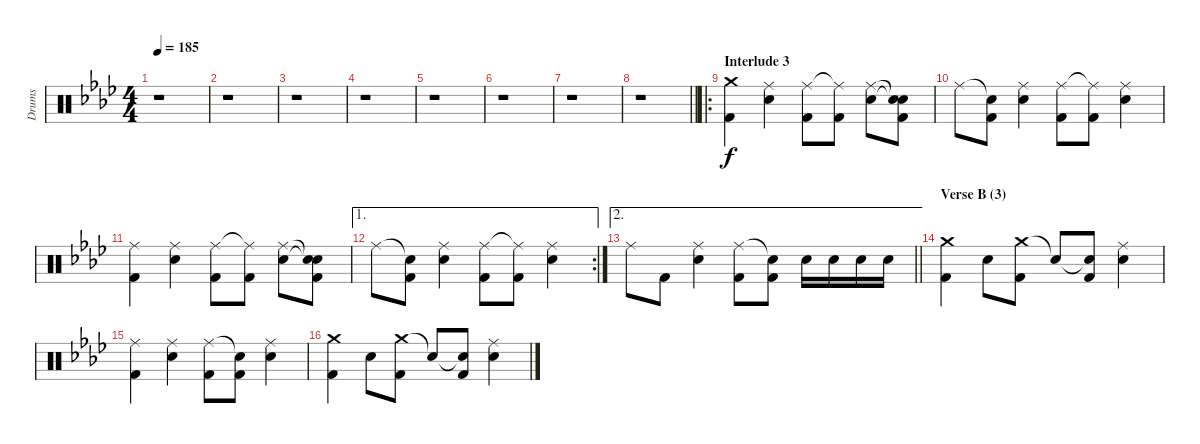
\track ("Drums" "Drums") {instrument percussion}
\staff {score}
\articulation defaults
\ts (4 4)
\tempo 185
\clef neutral
\ks fminor
r.1{dy f} |
r.1 |
r.1 |
r.1 |
r.1 |
r.1 |
r.1 |
\barLineRight lightlight
r.1 |
\ro
\section ("" "Interlude 3")
("Crash medium (hit)" "Kick (hit) 2").4 ("Ride (middle)" "Electric Snare (hit)").4 ("Ride (middle)" "Kick (hit) 2").8 ("Ride (middle)"{t} "Kick (hit) 2").8 ("Ride (middle)" "Electric Snare (hit)").8 ("Snare (hit)"{t} "Snare (hit)"{t} "Kick (hit) 2").8 |
"Ride (middle)".8 ("Snare (hit)"{t} "Kick (hit) 2").8 ("Ride (middle)" "Electric Snare (hit)").4 ("Ride (middle)" "Kick (hit) 2").8 ("Ride (middle)"{t} "Kick (hit) 2").8 ("Ride (middle)" "Electric Snare (hit)").4 |
("Ride (middle)" "Kick (hit) 2").4 ("Ride (middle)" "Electric Snare (hit)").4 ("Ride (middle)" "Kick (hit) 2").8 ("Ride (middle)"{t} "Kick (hit) 2").8 ("Ride (middle)" "Electric Snare (hit)").8 ("Snare (hit)"{t} "Snare (hit)"{t} "Kick (hit) 2").8 |
\ae 1
\rc 2 "Ride (middle)".8
("Snare (hit)"{t} "Kick (hit) 2").8 ("Ride (middle)" "Electric Snare (hit)").4 ("Ride (middle)" "Kick (hit) 2").8 ("Ride (middle)"{t} "Kick (hit) 2").8 ("Ride (middle)" "Electric Snare (hit)").4 |
\ae 2
\barLineRight lightlight "Ride (middle)".8 "Kick (hit) 2".8
("Ride (middle)" "Electric Snare (hit)").4 ("Ride (middle)" "Kick (hit) 2").8 ("Snare (hit)"{t} "Kick (hit) 2").8 "Electric Snare (hit)".16 "Electric Snare (hit)".16 "Electric Snare (hit)".16 "Electric Snare (hit)".16 |
\section ("" "Verse B (3)")
("Crash medium (hit)" "Kick (hit) 2").4 "Electric Snare (hit)".8 ("Crash medium (hit)" "Kick (hit) 2").8 "Snare (hit)"{t}.8 ("Snare (hit)"{t} "Kick (hit) 2").8 ("Ride (middle)" "Electric Snare (hit)").4 |
("Ride (middle)" "Kick (hit) 2").4 ("Ride (middle)" "Electric Snare (hit)").4 ("Ride (middle)" "Kick (hit) 2").8 ("Snare (hit)"{t} "Kick (hit) 2").8 ("Ride (middle)" "Electric Snare (hit)").4 |
("Crash medium (hit)" "Kick (hit) 2").4 "Electric Snare (hit)".8 ("Crash medium (hit)" "Kick (hit) 2").8 "Snare (hit)"{t}.8 ("Snare (hit)"{t} "Kick (hit) 2").8 ("Ride (middle)" "Electric Snare (hit)").4
